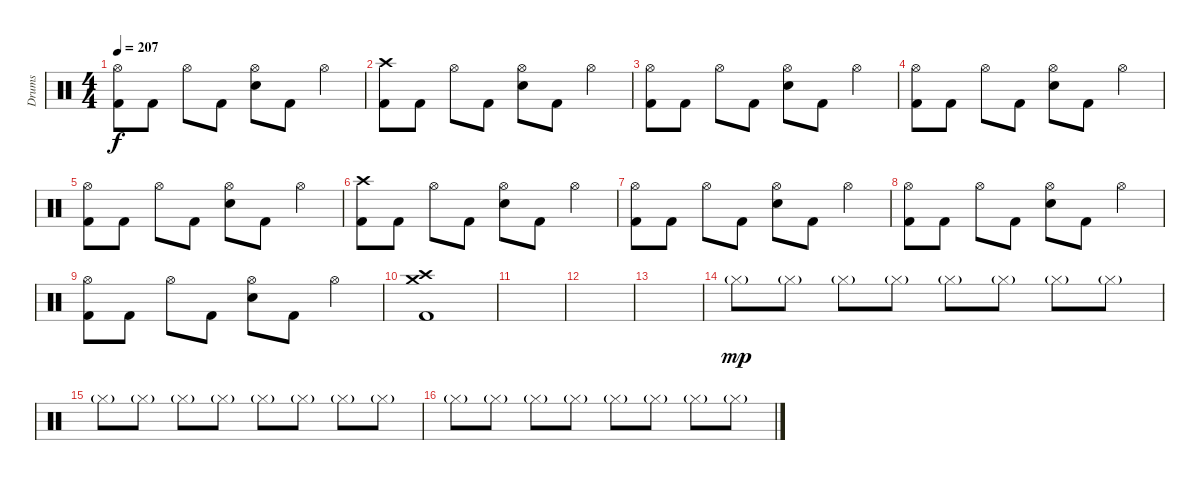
\track ("Drums" "Drums") {instrument percussion}
\staff {score}
\articulation defaults
\ts (4 4)
\tempo 207
\clef neutral
\ks c
("Hi-Hat (open)" "Kick (hit) 2").8{dy f} "Kick (hit) 2".8 "Hi-Hat (open)".8 "Kick (hit) 2".8 ("Hi-Hat (open)" "Electric Snare (hit)").8 "Kick (hit) 2".8 "Hi-Hat (open)".4 |
("Crash high (hit)" "Kick (hit) 2").8 "Kick (hit) 2".8 "Hi-Hat (open)".8 "Kick (hit) 2".8 ("Hi-Hat (open)" "Electric Snare (hit)").8 "Kick (hit) 2".8 "Hi-Hat (open)".4 |
("Hi-Hat (open)" "Kick (hit) 2").8 "Kick (hit) 2".8 "Hi-Hat (open)".8 "Kick (hit) 2".8 ("Hi-Hat (open)" "Electric Snare (hit)").8 "Kick (hit) 2".8 "Hi-Hat (open)".4 |
("Hi-Hat (open)" "Kick (hit) 2").8 "Kick (hit) 2".8 "Hi-Hat (open)".8 "Kick (hit) 2".8 ("Hi-Hat (open)" "Electric Snare (hit)").8 "Kick (hit) 2".8 "Hi-Hat (open)".4 |
("Hi-Hat (open)" "Kick (hit) 2").8 "Kick (hit) 2".8 "Hi-Hat (open)".8 "Kick (hit) 2".8 ("Hi-Hat (open)" "Electric Snare (hit)").8 "Kick (hit) 2".8 "Hi-Hat (open)".4 |
("Crash high (hit)" "Kick (hit) 2").8 "Kick (hit) 2".8 "Hi-Hat (open)".8 "Kick (hit) 2".8 ("Hi-Hat (open)" "Electric Snare (hit)").8 "Kick (hit) 2".8 "Hi-Hat (open)".4 |
("Hi-Hat (open)" "Kick (hit) 2").8 "Kick (hit) 2".8 "Hi-Hat (open)".8 "Kick (hit) 2".8 ("Hi-Hat (open)" "Electric Snare (hit)").8 "Kick (hit) 2".8 "Hi-Hat (open)".4 |
("Hi-Hat (open)" "Kick (hit) 2").8 "Kick (hit) 2".8 "Hi-Hat (open)".8 "Kick (hit) 2".8 ("Hi-Hat (open)" "Electric Snare (hit)").8 "Kick (hit) 2".8 "Hi-Hat (open)".4 |
("Hi-Hat (open)" "Kick (hit) 2").8 "Kick (hit) 2".8 "Hi-Hat (open)".8 "Kick (hit) 2".8 ("Hi-Hat (open)" "Electric Snare (hit)").8 "Kick (hit) 2".8 "Hi-Hat (open)".4 |
("Crash high (hit)" "Crash medium (hit)" "Kick (hit) 2").1 |
|
|
|
"Hi-Hat (closed)"{g}.8{dy mp volume 12} "Hi-Hat (closed)"{g}.8 "Hi-Hat (closed)"{g}.8 "Hi-Hat (closed)"{g}.8 "Hi-Hat (closed)"{g}.8 "Hi-Hat (closed)"{g}.8 "Hi-Hat (closed)"{g}.8 "Hi-Hat (closed)"{g}.8 |
"Hi-Hat (closed)"{g}.8 "Hi-Hat (closed)"{g}.8 "Hi-Hat (closed)"{g}.8 "Hi-Hat (closed)"{g}.8 "Hi-Hat (closed)"{g}.8 "Hi-Hat (closed)"{g}.8 "Hi-Hat (closed)"{g}.8 "Hi-Hat (closed)"{g}.8 |
"Hi-Hat (closed)"{g}.8 "Hi-Hat (closed)"{g}.8 "Hi-Hat (closed)"{g}.8 "Hi-Hat (closed)"{g}.8 "Hi-Hat (closed)"{g}.8 "Hi-Hat (closed)"{g}.8 "Hi-Hat (closed)"{g}.8 "Hi-Hat (closed)"{g}.8
